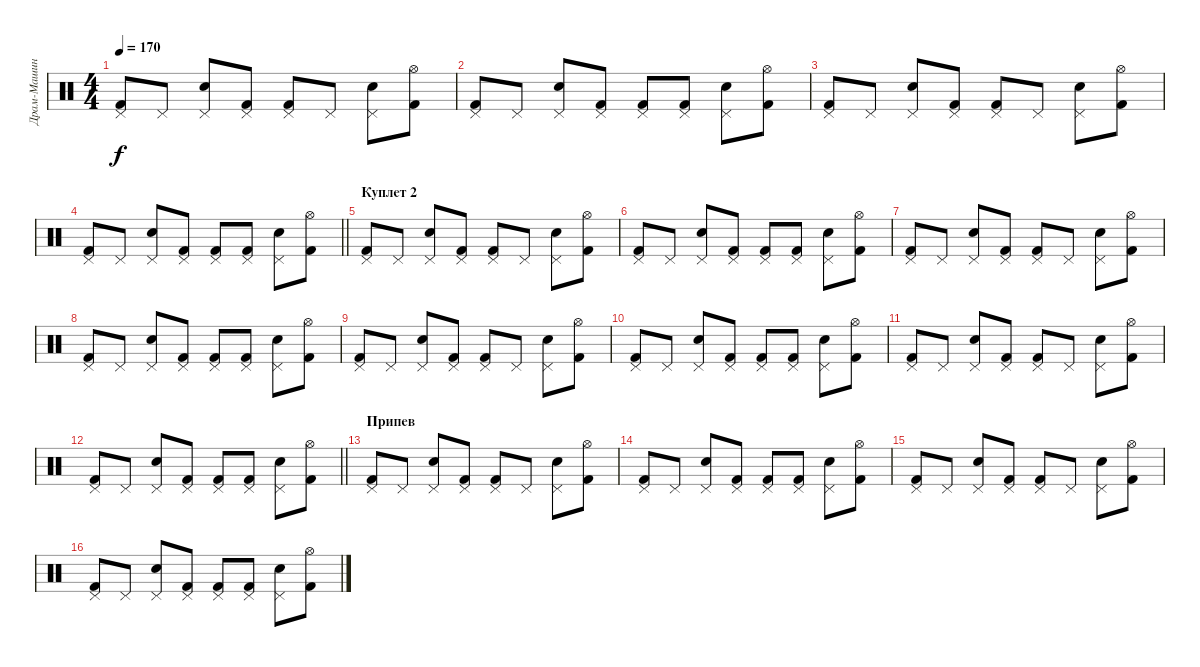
\track ("Драм-Машина" "Драм-Машин") {instrument percussion}
\staff {score}
\articulation defaults
\ts (4 4)
\tempo 170
\clef neutral
\ks c
("Pedal Hi-Hat (hit)" "Kick (hit) 2").8{dy f} "Pedal Hi-Hat (hit)".8 ("Pedal Hi-Hat (hit)" "Electric Snare (hit)").8 ("Pedal Hi-Hat (hit)" "Kick (hit) 2").8 ("Pedal Hi-Hat (hit)" "Kick (hit) 2").8 "Pedal Hi-Hat (hit)".8 ("Pedal Hi-Hat (hit)" "Electric Snare (hit)").8 ("Hi-Hat (open)" "Kick (hit) 2").8 |
("Pedal Hi-Hat (hit)" "Kick (hit) 2").8 "Pedal Hi-Hat (hit)".8 ("Pedal Hi-Hat (hit)" "Electric Snare (hit)").8 ("Pedal Hi-Hat (hit)" "Kick (hit) 2").8 ("Pedal Hi-Hat (hit)" "Kick (hit) 2").8 ("Pedal Hi-Hat (hit)" "Kick (hit) 2").8 ("Pedal Hi-Hat (hit)" "Electric Snare (hit)").8 ("Hi-Hat (open)" "Kick (hit) 2").8 |
("Pedal Hi-Hat (hit)" "Kick (hit) 2").8 "Pedal Hi-Hat (hit)".8 ("Pedal Hi-Hat (hit)" "Electric Snare (hit)").8 ("Pedal Hi-Hat (hit)" "Kick (hit) 2").8 ("Pedal Hi-Hat (hit)" "Kick (hit) 2").8 "Pedal Hi-Hat (hit)".8 ("Pedal Hi-Hat (hit)" "Electric Snare (hit)").8 ("Hi-Hat (open)" "Kick (hit) 2").8 |
\barLineRight lightlight
("Pedal Hi-Hat (hit)" "Kick (hit) 2").8 "Pedal Hi-Hat (hit)".8 ("Pedal Hi-Hat (hit)" "Electric Snare (hit)").8 ("Pedal Hi-Hat (hit)" "Kick (hit) 2").8 ("Pedal Hi-Hat (hit)" "Kick (hit) 2").8 ("Pedal Hi-Hat (hit)" "Kick (hit) 2").8 ("Pedal Hi-Hat (hit)" "Electric Snare (hit)").8 ("Hi-Hat (open)" "Kick (hit) 2").8 |
\section ("" "Куплет 2")
("Pedal Hi-Hat (hit)" "Kick (hit) 2").8 "Pedal Hi-Hat (hit)".8 ("Pedal Hi-Hat (hit)" "Electric Snare (hit)").8 ("Pedal Hi-Hat (hit)" "Kick (hit) 2").8 ("Pedal Hi-Hat (hit)" "Kick (hit) 2").8 "Pedal Hi-Hat (hit)".8 ("Pedal Hi-Hat (hit)" "Electric Snare (hit)").8 ("Hi-Hat (open)" "Kick (hit) 2").8 |
("Pedal Hi-Hat (hit)" "Kick (hit) 2").8 "Pedal Hi-Hat (hit)".8 ("Pedal Hi-Hat (hit)" "Electric Snare (hit)").8 ("Pedal Hi-Hat (hit)" "Kick (hit) 2").8 ("Pedal Hi-Hat (hit)" "Kick (hit) 2").8 ("Pedal Hi-Hat (hit)" "Kick (hit) 2").8 ("Pedal Hi-Hat (hit)" "Electric Snare (hit)").8 ("Hi-Hat (open)" "Kick (hit) 2").8 |
("Pedal Hi-Hat (hit)" "Kick (hit) 2").8 "Pedal Hi-Hat (hit)".8 ("Pedal Hi-Hat (hit)" "Electric Snare (hit)").8 ("Pedal Hi-Hat (hit)" "Kick (hit) 2").8 ("Pedal Hi-Hat (hit)" "Kick (hit) 2").8 "Pedal Hi-Hat (hit)".8 ("Pedal Hi-Hat (hit)" "Electric Snare (hit)").8 ("Hi-Hat (open)" "Kick (hit) 2").8 |
("Pedal Hi-Hat (hit)" "Kick (hit) 2").8 "Pedal Hi-Hat (hit)".8 ("Pedal Hi-Hat (hit)" "Electric Snare (hit)").8 ("Pedal Hi-Hat (hit)" "Kick (hit) 2").8 ("Pedal Hi-Hat (hit)" "Kick (hit) 2").8 ("Pedal Hi-Hat (hit)" "Kick (hit) 2").8 ("Pedal Hi-Hat (hit)" "Electric Snare (hit)").8 ("Hi-Hat (open)" "Kick (hit) 2").8 |
("Pedal Hi-Hat (hit)" "Kick (hit) 2").8 "Pedal Hi-Hat (hit)".8 ("Pedal Hi-Hat (hit)" "Electric Snare (hit)").8 ("Pedal Hi-Hat (hit)" "Kick (hit) 2").8 ("Pedal Hi-Hat (hit)" "Kick (hit) 2").8 "Pedal Hi-Hat (hit)".8 ("Pedal Hi-Hat (hit)" "Electric Snare (hit)").8 ("Hi-Hat (open)" "Kick (hit) 2").8 |
("Pedal Hi-Hat (hit)" "Kick (hit) 2").8 "Pedal Hi-Hat (hit)".8 ("Pedal Hi-Hat (hit)" "Electric Snare (hit)").8 ("Pedal Hi-Hat (hit)" "Kick (hit) 2").8 ("Pedal Hi-Hat (hit)" "Kick (hit) 2").8 ("Pedal Hi-Hat (hit)" "Kick (hit) 2").8 ("Pedal Hi-Hat (hit)" "Electric Snare (hit)").8 ("Hi-Hat (open)" "Kick (hit) 2").8 |
("Pedal Hi-Hat (hit)" "Kick (hit) 2").8 "Pedal Hi-Hat (hit)".8 ("Pedal Hi-Hat (hit)" "Electric Snare (hit)").8 ("Pedal Hi-Hat (hit)" "Kick (hit) 2").8 ("Pedal Hi-Hat (hit)" "Kick (hit) 2").8 "Pedal Hi-Hat (hit)".8 ("Pedal Hi-Hat (hit)" "Electric Snare (hit)").8 ("Hi-Hat (open)" "Kick (hit) 2").8 |
\barLineRight lightlight
("Pedal Hi-Hat (hit)" "Kick (hit) 2").8 "Pedal Hi-Hat (hit)".8 ("Pedal Hi-Hat (hit)" "Electric Snare (hit)").8 ("Pedal Hi-Hat (hit)" "Kick (hit) 2").8 ("Pedal Hi-Hat (hit)" "Kick (hit) 2").8 ("Pedal Hi-Hat (hit)" "Kick (hit) 2").8 ("Pedal Hi-Hat (hit)" "Electric Snare (hit)").8 ("Hi-Hat (open)" "Kick (hit) 2").8 |
\section ("" "Припев")
("Pedal Hi-Hat (hit)" "Kick (hit) 2").8 "Pedal Hi-Hat (hit)".8 ("Pedal Hi-Hat (hit)" "Electric Snare (hit)").8 ("Pedal Hi-Hat (hit)" "Kick (hit) 2").8 ("Pedal Hi-Hat (hit)" "Kick (hit) 2").8 "Pedal Hi-Hat (hit)".8 ("Pedal Hi-Hat (hit)" "Electric Snare (hit)").8 ("Hi-Hat (open)" "Kick (hit) 2").8 |
("Pedal Hi-Hat (hit)" "Kick (hit) 2").8 "Pedal Hi-Hat (hit)".8 ("Pedal Hi-Hat (hit)" "Electric Snare (hit)").8 ("Pedal Hi-Hat (hit)" "Kick (hit) 2").8 ("Pedal Hi-Hat (hit)" "Kick (hit) 2").8 ("Pedal Hi-Hat (hit)" "Kick (hit) 2").8 ("Pedal Hi-Hat (hit)" "Electric Snare (hit)").8 ("Hi-Hat (open)" "Kick (hit) 2").8 |
("Pedal Hi-Hat (hit)" "Kick (hit) 2").8 "Pedal Hi-Hat (hit)".8 ("Pedal Hi-Hat (hit)" "Electric Snare (hit)").8 ("Pedal Hi-Hat (hit)" "Kick (hit) 2").8 ("Pedal Hi-Hat (hit)" "Kick (hit) 2").8 "Pedal Hi-Hat (hit)".8 ("Pedal Hi-Hat (hit)" "Electric Snare (hit)").8 ("Hi-Hat (open)" "Kick (hit) 2").8 |
("Pedal Hi-Hat (hit)" "Kick (hit) 2").8 "Pedal Hi-Hat (hit)".8 ("Pedal Hi-Hat (hit)" "Electric Snare (hit)").8 ("Pedal Hi-Hat (hit)" "Kick (hit) 2").8 ("Pedal Hi-Hat (hit)" "Kick (hit) 2").8 ("Pedal Hi-Hat (hit)" "Kick (hit) 2").8 ("Pedal Hi-Hat (hit)" "Electric Snare (hit)").8 ("Hi-Hat (open)" "Kick (hit) 2").8
